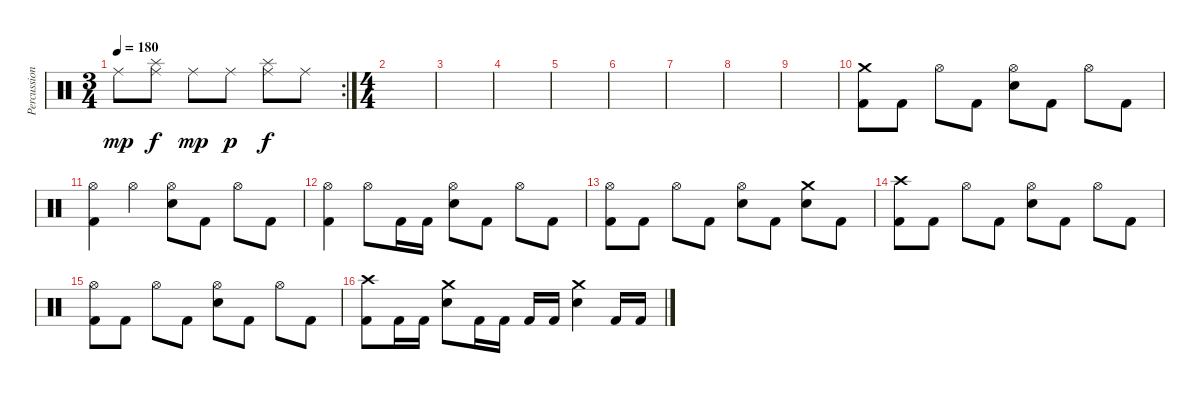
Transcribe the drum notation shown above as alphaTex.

\track ("Percussion" "Percussion") {instrument percussion}
\staff {score}
\articulation defaults
\rc 2
\ts (3 4)
\tempo 180
\clef neutral
\ks c "Ride (middle)".8{dy mp}
("Ride (middle)" "Splash (hit)").8{dy f} "Ride (middle)".8{dy mp} "Ride (middle)".8{dy p} ("Ride (middle)" "Splash (hit)").8{dy f} "Ride (middle)".8 |
\ts (4 4)
|
|
|
|
|
|
|
|
("Kick (hit) 2" "Crash medium (hit)").8 "Kick (hit) 2".8 "Hi-Hat (open)".8 "Kick (hit) 2".8 ("Electric Snare (hit)" "Hi-Hat (open)").8 "Kick (hit) 2".8 "Hi-Hat (open)".8 "Kick (hit) 2".8 |
("Kick (hit) 2" "Hi-Hat (open)").4 "Hi-Hat (open)".4 ("Electric Snare (hit)" "Hi-Hat (open)").8 "Kick (hit) 2".8 "Hi-Hat (open)".8 "Kick (hit) 2".8 |
("Kick (hit) 2" "Hi-Hat (open)").4 "Hi-Hat (open)".8 "Kick (hit) 2".16 "Kick (hit) 2".16 ("Electric Snare (hit)" "Hi-Hat (open)").8 "Kick (hit) 2".8 "Hi-Hat (open)".8 "Kick (hit) 2".8 |
("Kick (hit) 2" "Hi-Hat (open)").8 "Kick (hit) 2".8 "Hi-Hat (open)".8 "Kick (hit) 2".8 ("Electric Snare (hit)" "Hi-Hat (open)").8 "Kick (hit) 2".8 ("Electric Snare (hit)" "Crash medium (hit)").8 "Kick (hit) 2".8 |
("Kick (hit) 2" "Crash high (hit)").8 "Kick (hit) 2".8 "Hi-Hat (open)".8 "Kick (hit) 2".8 ("Electric Snare (hit)" "Hi-Hat (open)").8 "Kick (hit) 2".8 "Hi-Hat (open)".8 "Kick (hit) 2".8 |
("Kick (hit) 2" "Hi-Hat (open)").8 "Kick (hit) 2".8 "Hi-Hat (open)".8 "Kick (hit) 2".8 ("Electric Snare (hit)" "Hi-Hat (open)").8 "Kick (hit) 2".8 "Hi-Hat (open)".8 "Kick (hit) 2".8 |
("Kick (hit) 2" "Crash high (hit)").8 "Kick (hit) 2".16 "Kick (hit) 2".16 ("Electric Snare (hit)" "Crash medium (hit)").8 "Kick (hit) 2".16 "Kick (hit) 2".16 "Kick (hit) 2".16 "Kick (hit) 2".16 ("Electric Snare (hit)" "Crash medium (hit)").4 "Kick (hit) 2".16 "Kick (hit) 2".16
